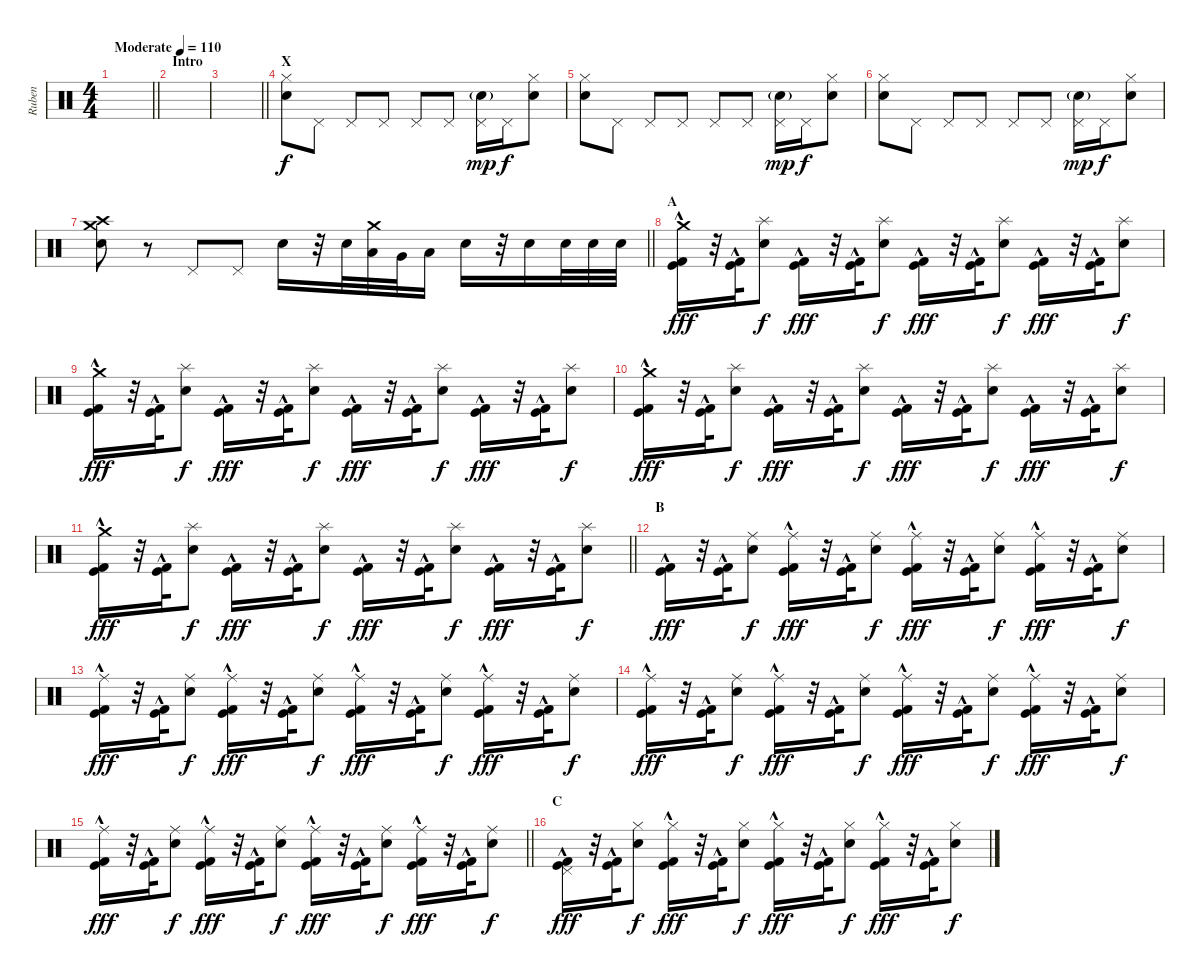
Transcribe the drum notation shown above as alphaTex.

\track ("Ruben" "Ruben") {instrument percussion}
\staff {score}
\articulation defaults
\ts (4 4)
\tempo (110 "Moderate")
\clef neutral
\barLineRight lightlight
\ks c
|
\section ("" "Intro")
|
\barLineRight lightlight
|
\section ("" "X")
("Hi-Hat (closed)" "Snare (hit) 2").8 "Pedal Hi-Hat (hit)".8 "Pedal Hi-Hat (hit)".8 "Pedal Hi-Hat (hit)".8 "Pedal Hi-Hat (hit)".8 "Pedal Hi-Hat (hit)".8 ("Pedal Hi-Hat (hit)" "Snare (hit) 2"{g}).16{dy mp} "Pedal Hi-Hat (hit)".16{dy f} ("Hi-Hat (closed)" "Snare (hit) 2").8 |
("Hi-Hat (closed)" "Snare (hit) 2").8 "Pedal Hi-Hat (hit)".8 "Pedal Hi-Hat (hit)".8 "Pedal Hi-Hat (hit)".8 "Pedal Hi-Hat (hit)".8 "Pedal Hi-Hat (hit)".8 ("Pedal Hi-Hat (hit)" "Snare (hit) 2"{g}).16{dy mp} "Pedal Hi-Hat (hit)".16{dy f} ("Hi-Hat (closed)" "Snare (hit) 2").8 |
("Hi-Hat (closed)" "Snare (hit) 2").8 "Pedal Hi-Hat (hit)".8 "Pedal Hi-Hat (hit)".8 "Pedal Hi-Hat (hit)".8 "Pedal Hi-Hat (hit)".8 "Pedal Hi-Hat (hit)".8 ("Pedal Hi-Hat (hit)" "Snare (hit) 2"{g}).16{dy mp} "Pedal Hi-Hat (hit)".16{dy f} ("Hi-Hat (closed)" "Snare (hit) 2").8 |
\barLineRight lightlight
("Crash medium (hit)" "Crash high (hit)" "Electric Snare (hit)").8 r.8 "Pedal Hi-Hat (hit)".8 "Pedal Hi-Hat (hit)".8 "Snare (hit) 2".16 r.32 "Snare (hit) 2".32 ("Crash medium (hit)" "Low Tom (hit)").32 "Very Low Tom (hit)".32 "Low Floor Tom (hit)".16 "Snare (hit) 2".16 r.32 "Snare (hit) 2".16 "Snare (hit) 2".32 "Snare (hit) 2".32 "Snare (hit) 2".32 |
\section ("" "A")
("Crash medium (hit)" "Kick (hit)"{hac} "Kick (hit) 2"{hac}).16{dy fff} r.32 ("Kick (hit)"{hac} "Kick (hit) 2"{hac}).32 ("Splash (hit)" "Snare (hit) 2").8{dy f} ("Kick (hit)"{hac} "Kick (hit) 2"{hac}).16{dy fff} r.32 ("Kick (hit)"{hac} "Kick (hit) 2"{hac}).32 ("Splash (hit)" "Snare (hit) 2").8{dy f} ("Kick (hit)"{hac} "Kick (hit) 2"{hac}).16{dy fff} r.32 ("Kick (hit)"{hac} "Kick (hit) 2"{hac}).32 ("Splash (hit)" "Snare (hit) 2").8{dy f} ("Kick (hit)"{hac} "Kick (hit) 2"{hac}).16{dy fff} r.32 ("Kick (hit)"{hac} "Kick (hit) 2"{hac}).32 ("Splash (hit)" "Snare (hit) 2").8{dy f} |
("Crash medium (hit)" "Kick (hit)"{hac} "Kick (hit) 2"{hac}).16{dy fff} r.32 ("Kick (hit)"{hac} "Kick (hit) 2"{hac}).32 ("Splash (hit)" "Snare (hit) 2").8{dy f} ("Kick (hit)"{hac} "Kick (hit) 2"{hac}).16{dy fff} r.32 ("Kick (hit)"{hac} "Kick (hit) 2"{hac}).32 ("Splash (hit)" "Snare (hit) 2").8{dy f} ("Kick (hit)"{hac} "Kick (hit) 2"{hac}).16{dy fff} r.32 ("Kick (hit)"{hac} "Kick (hit) 2"{hac}).32 ("Splash (hit)" "Snare (hit) 2").8{dy f} ("Kick (hit)"{hac} "Kick (hit) 2"{hac}).16{dy fff} r.32 ("Kick (hit)"{hac} "Kick (hit) 2"{hac}).32 ("Splash (hit)" "Snare (hit) 2").8{dy f} |
("Crash medium (hit)" "Kick (hit)"{hac} "Kick (hit) 2"{hac}).16{dy fff} r.32 ("Kick (hit)"{hac} "Kick (hit) 2"{hac}).32 ("Splash (hit)" "Snare (hit) 2").8{dy f} ("Kick (hit)"{hac} "Kick (hit) 2"{hac}).16{dy fff} r.32 ("Kick (hit)"{hac} "Kick (hit) 2"{hac}).32 ("Splash (hit)" "Snare (hit) 2").8{dy f} ("Kick (hit)"{hac} "Kick (hit) 2"{hac}).16{dy fff} r.32 ("Kick (hit)"{hac} "Kick (hit) 2"{hac}).32 ("Splash (hit)" "Snare (hit) 2").8{dy f} ("Kick (hit)"{hac} "Kick (hit) 2"{hac}).16{dy fff} r.32 ("Kick (hit)"{hac} "Kick (hit) 2"{hac}).32 ("Splash (hit)" "Snare (hit) 2").8{dy f} |
\barLineRight lightlight
("Crash medium (hit)" "Kick (hit)"{hac} "Kick (hit) 2"{hac}).16{dy fff} r.32 ("Kick (hit)"{hac} "Kick (hit) 2"{hac}).32 ("Splash (hit)" "Snare (hit) 2").8{dy f} ("Kick (hit)"{hac} "Kick (hit) 2"{hac}).16{dy fff} r.32 ("Kick (hit)"{hac} "Kick (hit) 2"{hac}).32 ("Splash (hit)" "Snare (hit) 2").8{dy f} ("Kick (hit)"{hac} "Kick (hit) 2"{hac}).16{dy fff} r.32 ("Kick (hit)"{hac} "Kick (hit) 2"{hac}).32 ("Splash (hit)" "Snare (hit) 2").8{dy f} ("Kick (hit)"{hac} "Kick (hit) 2"{hac}).16{dy fff} r.32 ("Kick (hit)"{hac} "Kick (hit) 2"{hac}).32 ("Splash (hit)" "Snare (hit) 2").8{dy f} |
\section ("" "B")
("Kick (hit)"{hac} "Kick (hit) 2"{hac}).16{dy fff} r.32 ("Kick (hit)"{hac} "Kick (hit) 2"{hac}).32 ("Ride (middle)" "Snare (hit) 2").8{dy f} ("Ride (middle)" "Kick (hit)"{hac} "Kick (hit) 2"{hac}).16{dy fff} r.32 ("Kick (hit)"{hac} "Kick (hit) 2"{hac}).32 ("Ride (middle)" "Snare (hit) 2").8{dy f} ("Ride (middle)" "Kick (hit)"{hac} "Kick (hit) 2"{hac}).16{dy fff} r.32 ("Kick (hit)"{hac} "Kick (hit) 2"{hac}).32 ("Ride (middle)" "Snare (hit) 2").8{dy f} ("Ride (middle)" "Kick (hit)"{hac} "Kick (hit) 2"{hac}).16{dy fff} r.32 ("Kick (hit)"{hac} "Kick (hit) 2"{hac}).32 ("Ride (middle)" "Snare (hit) 2").8{dy f} |
("Ride (middle)" "Kick (hit)"{hac} "Kick (hit) 2"{hac}).16{dy fff} r.32 ("Kick (hit)"{hac} "Kick (hit) 2"{hac}).32 ("Ride (middle)" "Snare (hit) 2").8{dy f} ("Ride (middle)" "Kick (hit)"{hac} "Kick (hit) 2"{hac}).16{dy fff} r.32 ("Kick (hit)"{hac} "Kick (hit) 2"{hac}).32 ("Ride (middle)" "Snare (hit) 2").8{dy f} ("Ride (middle)" "Kick (hit)"{hac} "Kick (hit) 2"{hac}).16{dy fff} r.32 ("Kick (hit)"{hac} "Kick (hit) 2"{hac}).32 ("Ride (middle)" "Snare (hit) 2").8{dy f} ("Ride (middle)" "Kick (hit)"{hac} "Kick (hit) 2"{hac}).16{dy fff} r.32 ("Kick (hit)"{hac} "Kick (hit) 2"{hac}).32 ("Ride (middle)" "Snare (hit) 2").8{dy f} |
("Ride (middle)" "Kick (hit)"{hac} "Kick (hit) 2"{hac}).16{dy fff} r.32 ("Kick (hit)"{hac} "Kick (hit) 2"{hac}).32 ("Ride (middle)" "Snare (hit) 2").8{dy f} ("Ride (middle)" "Kick (hit)"{hac} "Kick (hit) 2"{hac}).16{dy fff} r.32 ("Kick (hit)"{hac} "Kick (hit) 2"{hac}).32 ("Ride (middle)" "Snare (hit) 2").8{dy f} ("Ride (middle)" "Kick (hit)"{hac} "Kick (hit) 2"{hac}).16{dy fff} r.32 ("Kick (hit)"{hac} "Kick (hit) 2"{hac}).32 ("Ride (middle)" "Snare (hit) 2").8{dy f} ("Ride (middle)" "Kick (hit)"{hac} "Kick (hit) 2"{hac}).16{dy fff} r.32 ("Kick (hit)"{hac} "Kick (hit) 2"{hac}).32 ("Ride (middle)" "Snare (hit) 2").8{dy f} |
\barLineRight lightlight
("Ride (middle)" "Kick (hit)"{hac} "Kick (hit) 2"{hac}).16{dy fff} r.32 ("Kick (hit)"{hac} "Kick (hit) 2"{hac}).32 ("Ride (middle)" "Snare (hit) 2").8{dy f} ("Ride (middle)" "Kick (hit)"{hac} "Kick (hit) 2"{hac}).16{dy fff} r.32 ("Kick (hit)"{hac} "Kick (hit) 2"{hac}).32 ("Ride (middle)" "Snare (hit) 2").8{dy f} ("Ride (middle)" "Kick (hit)"{hac} "Kick (hit) 2"{hac}).16{dy fff} r.32 ("Kick (hit)"{hac} "Kick (hit) 2"{hac}).32 ("Ride (middle)" "Snare (hit) 2").8{dy f} ("Ride (middle)" "Kick (hit)"{hac} "Kick (hit) 2"{hac}).16{dy fff} r.32 ("Kick (hit)"{hac} "Kick (hit) 2"{hac}).32 ("Ride (middle)" "Snare (hit) 2").8{dy f} |
\section ("" "C")
("Pedal Hi-Hat (hit)" "Kick (hit)"{hac} "Kick (hit) 2"{hac}).16{dy fff} r.32 ("Kick (hit)"{hac} "Kick (hit) 2"{hac}).32 ("Hi-Hat (closed)" "Snare (hit) 2").8{dy f} ("Hi-Hat (closed)" "Kick (hit)"{hac} "Kick (hit) 2"{hac}).16{dy fff} r.32 ("Kick (hit)"{hac} "Kick (hit) 2"{hac}).32 ("Hi-Hat (closed)" "Snare (hit) 2").8{dy f} ("Hi-Hat (closed)" "Kick (hit)"{hac} "Kick (hit) 2"{hac}).16{dy fff} r.32 ("Kick (hit)"{hac} "Kick (hit) 2"{hac}).32 ("Hi-Hat (closed)" "Snare (hit) 2").8{dy f} ("Hi-Hat (closed)" "Kick (hit)"{hac} "Kick (hit) 2"{hac}).16{dy fff} r.32 ("Kick (hit)"{hac} "Kick (hit) 2"{hac}).32 ("Hi-Hat (closed)" "Snare (hit) 2").8{dy f}
